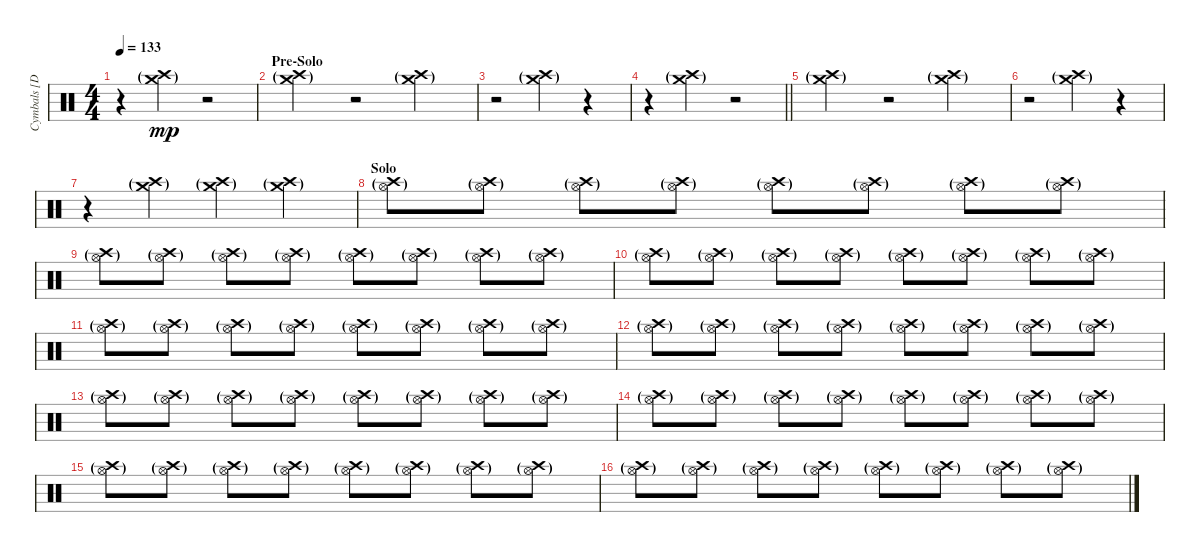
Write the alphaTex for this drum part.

\track ("Cymbals [Dave Grohl]" "Cymbals [D") {instrument percussion}
\staff {score}
\articulation defaults
\ts (4 4)
\tempo 133
\clef neutral
\ks c
r.4{dy mp volume 0} ("Crash high (hit)"{g} "Crash medium (hit)"{g}).4{volume 14 balance 8} r.2{volume 0} |
\section ("" "Pre-Solo")
("Crash high (hit)"{g} "Crash medium (hit)"{g}).4{volume 14 balance 8} r.2{volume 0} ("Crash high (hit)"{g} "Crash medium (hit)"{g}).4{volume 14 balance 8} |
r.2{volume 0} ("Crash high (hit)"{g} "Crash medium (hit)"{g}).4{volume 14 balance 8} r.4{volume 0} |
\barLineRight lightlight
r.4{volume 0} ("Crash high (hit)"{g} "Crash medium (hit)"{g}).4{volume 14 balance 8} r.2{volume 0} |
("Crash high (hit)"{g} "Crash medium (hit)"{g}).4{volume 14 balance 8} r.2{volume 0} ("Crash high (hit)"{g} "Crash medium (hit)"{g}).4{volume 14 balance 8} |
r.2{volume 0} ("Crash high (hit)"{g} "Crash medium (hit)"{g}).4{volume 14 balance 8} r.4{volume 0} |
r.4{volume 0} ("Crash high (hit)"{g} "Crash medium (hit)"{g}).4{volume 14 balance 8} ("Crash high (hit)"{g} "Crash medium (hit)"{g}).4{volume 14 balance 8} ("Crash high (hit)"{g} "Crash medium (hit)"{g}).4{volume 14 balance 8} |
\section ("" "Solo")
("Crash high (hit)"{g} "Hi-Hat (open)"{g}).8{volume 8} ("Crash high (hit)"{g} "Hi-Hat (open)"{g}).8 ("Crash high (hit)"{g} "Hi-Hat (open)"{g}).8 ("Crash high (hit)"{g} "Hi-Hat (open)"{g}).8 ("Crash high (hit)"{g} "Hi-Hat (open)"{g}).8 ("Crash high (hit)"{g} "Hi-Hat (open)"{g}).8 ("Crash high (hit)"{g} "Hi-Hat (open)"{g}).8 ("Crash high (hit)"{g} "Hi-Hat (open)"{g}).8 |
("Crash high (hit)"{g} "Hi-Hat (open)"{g}).8 ("Crash high (hit)"{g} "Hi-Hat (open)"{g}).8 ("Crash high (hit)"{g} "Hi-Hat (open)"{g}).8 ("Crash high (hit)"{g} "Hi-Hat (open)"{g}).8 ("Crash high (hit)"{g} "Hi-Hat (open)"{g}).8 ("Crash high (hit)"{g} "Hi-Hat (open)"{g}).8 ("Crash high (hit)"{g} "Hi-Hat (open)"{g}).8 ("Crash high (hit)"{g} "Hi-Hat (open)"{g}).8 |
("Crash high (hit)"{g} "Hi-Hat (open)"{g}).8 ("Crash high (hit)"{g} "Hi-Hat (open)"{g}).8 ("Crash high (hit)"{g} "Hi-Hat (open)"{g}).8 ("Crash high (hit)"{g} "Hi-Hat (open)"{g}).8 ("Crash high (hit)"{g} "Hi-Hat (open)"{g}).8 ("Crash high (hit)"{g} "Hi-Hat (open)"{g}).8 ("Crash high (hit)"{g} "Hi-Hat (open)"{g}).8 ("Crash high (hit)"{g} "Hi-Hat (open)"{g}).8 |
("Crash high (hit)"{g} "Hi-Hat (open)"{g}).8 ("Crash high (hit)"{g} "Hi-Hat (open)"{g}).8 ("Crash high (hit)"{g} "Hi-Hat (open)"{g}).8 ("Crash high (hit)"{g} "Hi-Hat (open)"{g}).8 ("Crash high (hit)"{g} "Hi-Hat (open)"{g}).8 ("Crash high (hit)"{g} "Hi-Hat (open)"{g}).8 ("Crash high (hit)"{g} "Hi-Hat (open)"{g}).8 ("Crash high (hit)"{g} "Hi-Hat (open)"{g}).8 |
("Crash high (hit)"{g} "Hi-Hat (open)"{g}).8 ("Crash high (hit)"{g} "Hi-Hat (open)"{g}).8 ("Crash high (hit)"{g} "Hi-Hat (open)"{g}).8 ("Crash high (hit)"{g} "Hi-Hat (open)"{g}).8 ("Crash high (hit)"{g} "Hi-Hat (open)"{g}).8 ("Crash high (hit)"{g} "Hi-Hat (open)"{g}).8 ("Crash high (hit)"{g} "Hi-Hat (open)"{g}).8 ("Crash high (hit)"{g} "Hi-Hat (open)"{g}).8 |
("Crash high (hit)"{g} "Hi-Hat (open)"{g}).8 ("Crash high (hit)"{g} "Hi-Hat (open)"{g}).8 ("Crash high (hit)"{g} "Hi-Hat (open)"{g}).8 ("Crash high (hit)"{g} "Hi-Hat (open)"{g}).8 ("Crash high (hit)"{g} "Hi-Hat (open)"{g}).8 ("Crash high (hit)"{g} "Hi-Hat (open)"{g}).8 ("Crash high (hit)"{g} "Hi-Hat (open)"{g}).8 ("Crash high (hit)"{g} "Hi-Hat (open)"{g}).8 |
("Crash high (hit)"{g} "Hi-Hat (open)"{g}).8 ("Crash high (hit)"{g} "Hi-Hat (open)"{g}).8 ("Crash high (hit)"{g} "Hi-Hat (open)"{g}).8 ("Crash high (hit)"{g} "Hi-Hat (open)"{g}).8 ("Crash high (hit)"{g} "Hi-Hat (open)"{g}).8 ("Crash high (hit)"{g} "Hi-Hat (open)"{g}).8 ("Crash high (hit)"{g} "Hi-Hat (open)"{g}).8 ("Crash high (hit)"{g} "Hi-Hat (open)"{g}).8 |
("Crash high (hit)"{g} "Hi-Hat (open)"{g}).8 ("Crash high (hit)"{g} "Hi-Hat (open)"{g}).8 ("Crash high (hit)"{g} "Hi-Hat (open)"{g}).8 ("Crash high (hit)"{g} "Hi-Hat (open)"{g}).8 ("Crash high (hit)"{g} "Hi-Hat (open)"{g}).8 ("Crash high (hit)"{g} "Hi-Hat (open)"{g}).8 ("Crash high (hit)"{g} "Hi-Hat (open)"{g}).8 ("Crash high (hit)"{g} "Hi-Hat (open)"{g}).8 |
("Crash high (hit)"{g} "Hi-Hat (open)"{g}).8 ("Crash high (hit)"{g} "Hi-Hat (open)"{g}).8 ("Crash high (hit)"{g} "Hi-Hat (open)"{g}).8 ("Crash high (hit)"{g} "Hi-Hat (open)"{g}).8 ("Crash high (hit)"{g} "Hi-Hat (open)"{g}).8 ("Crash high (hit)"{g} "Hi-Hat (open)"{g}).8 ("Crash high (hit)"{g} "Hi-Hat (open)"{g}).8 ("Crash high (hit)"{g} "Hi-Hat (open)"{g}).8
